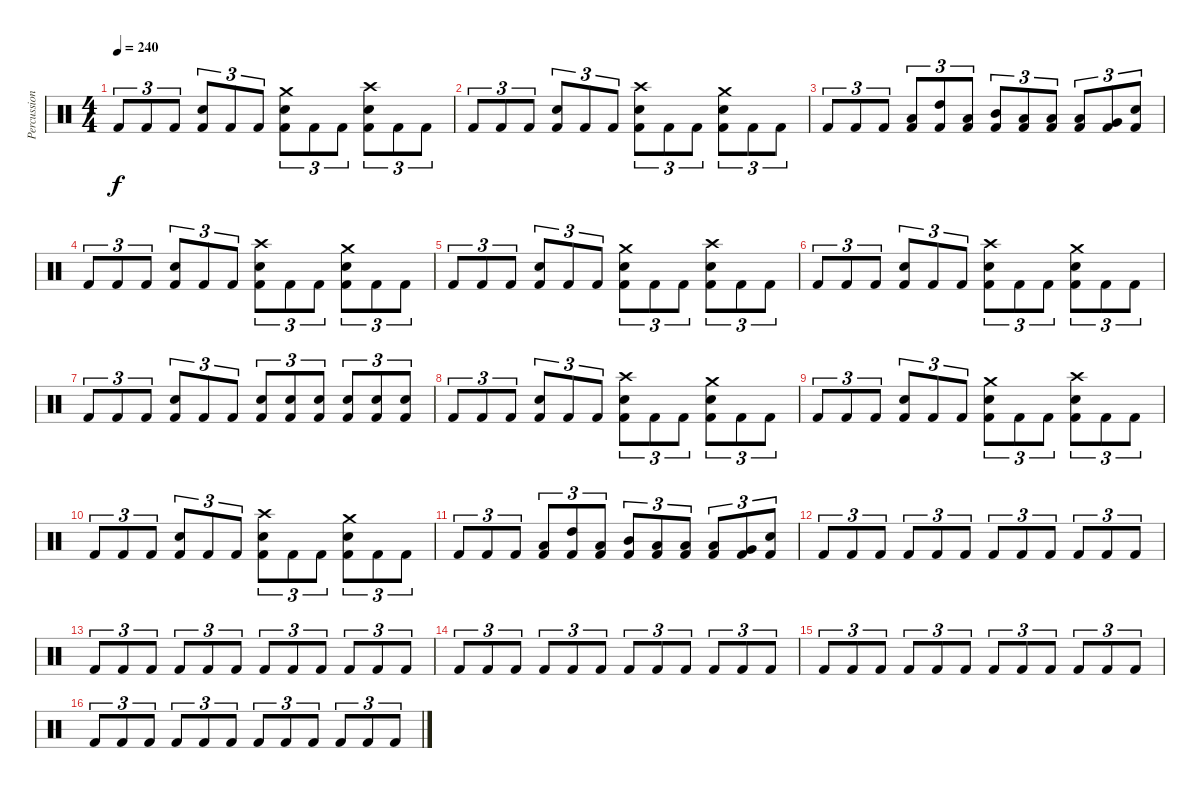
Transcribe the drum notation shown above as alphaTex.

\track ("Percussion" "Percussion") {instrument percussion}
\staff {score}
\articulation defaults
\ts (4 4)
\tempo 240
\clef neutral
\ks c "Kick (hit) 2".8{tu (3 2) dy f} "Kick (hit) 2".8{tu (3 2)} "Kick (hit) 2".8{tu (3 2)}
("Kick (hit) 2" "Electric Snare (hit)").8{tu (3 2)} "Kick (hit) 2".8{tu (3 2)} "Kick (hit) 2".8{tu (3 2)} ("Kick (hit) 2" "Electric Snare (hit)" "Crash medium (hit)").8{tu (3 2)} "Kick (hit) 2".8{tu (3 2)} "Kick (hit) 2".8{tu (3 2)} ("Kick (hit) 2" "Electric Snare (hit)" "Crash high (hit)").8{tu (3 2)} "Kick (hit) 2".8{tu (3 2)} "Kick (hit) 2".8{tu (3 2)} |
"Kick (hit) 2".8{tu (3 2)} "Kick (hit) 2".8{tu (3 2)} "Kick (hit) 2".8{tu (3 2)} ("Kick (hit) 2" "Electric Snare (hit)").8{tu (3 2)} "Kick (hit) 2".8{tu (3 2)} "Kick (hit) 2".8{tu (3 2)} ("Kick (hit) 2" "Electric Snare (hit)" "Crash high (hit)").8{tu (3 2)} "Kick (hit) 2".8{tu (3 2)} "Kick (hit) 2".8{tu (3 2)} ("Kick (hit) 2" "Electric Snare (hit)" "Crash medium (hit)").8{tu (3 2)} "Kick (hit) 2".8{tu (3 2)} "Kick (hit) 2".8{tu (3 2)} |
"Kick (hit) 2".8{tu (3 2)} "Kick (hit) 2".8{tu (3 2)} "Kick (hit) 2".8{tu (3 2)} ("Kick (hit) 2" "Low Floor Tom (hit)").8{tu (3 2)} ("Kick (hit) 2" "High Tom (hit)").8{tu (3 2)} ("Kick (hit) 2" "Low Floor Tom (hit)").8{tu (3 2)} ("Kick (hit) 2" "Mid Tom (hit)").8{tu (3 2)} ("Kick (hit) 2" "Low Floor Tom (hit)").8{tu (3 2)} ("Kick (hit) 2" "Low Tom (hit)").8{tu (3 2)} ("Kick (hit) 2" "Low Floor Tom (hit)").8{tu (3 2)} ("Kick (hit) 2" "Very Low Tom (hit)").8{tu (3 2)} ("Kick (hit) 2" "Electric Snare (hit)").8{tu (3 2)} |
"Kick (hit) 2".8{tu (3 2)} "Kick (hit) 2".8{tu (3 2)} "Kick (hit) 2".8{tu (3 2)} ("Kick (hit) 2" "Electric Snare (hit)").8{tu (3 2)} "Kick (hit) 2".8{tu (3 2)} "Kick (hit) 2".8{tu (3 2)} ("Kick (hit) 2" "Electric Snare (hit)" "Crash high (hit)").8{tu (3 2)} "Kick (hit) 2".8{tu (3 2)} "Kick (hit) 2".8{tu (3 2)} ("Kick (hit) 2" "Electric Snare (hit)" "Crash medium (hit)").8{tu (3 2)} "Kick (hit) 2".8{tu (3 2)} "Kick (hit) 2".8{tu (3 2)} |
"Kick (hit) 2".8{tu (3 2)} "Kick (hit) 2".8{tu (3 2)} "Kick (hit) 2".8{tu (3 2)} ("Kick (hit) 2" "Electric Snare (hit)").8{tu (3 2)} "Kick (hit) 2".8{tu (3 2)} "Kick (hit) 2".8{tu (3 2)} ("Kick (hit) 2" "Electric Snare (hit)" "Crash medium (hit)").8{tu (3 2)} "Kick (hit) 2".8{tu (3 2)} "Kick (hit) 2".8{tu (3 2)} ("Kick (hit) 2" "Electric Snare (hit)" "Crash high (hit)").8{tu (3 2)} "Kick (hit) 2".8{tu (3 2)} "Kick (hit) 2".8{tu (3 2)} |
"Kick (hit) 2".8{tu (3 2)} "Kick (hit) 2".8{tu (3 2)} "Kick (hit) 2".8{tu (3 2)} ("Kick (hit) 2" "Electric Snare (hit)").8{tu (3 2)} "Kick (hit) 2".8{tu (3 2)} "Kick (hit) 2".8{tu (3 2)} ("Kick (hit) 2" "Electric Snare (hit)" "Crash high (hit)").8{tu (3 2)} "Kick (hit) 2".8{tu (3 2)} "Kick (hit) 2".8{tu (3 2)} ("Kick (hit) 2" "Electric Snare (hit)" "Crash medium (hit)").8{tu (3 2)} "Kick (hit) 2".8{tu (3 2)} "Kick (hit) 2".8{tu (3 2)} |
"Kick (hit) 2".8{tu (3 2)} "Kick (hit) 2".8{tu (3 2)} "Kick (hit) 2".8{tu (3 2)} ("Kick (hit) 2" "Electric Snare (hit)").8{tu (3 2)} "Kick (hit) 2".8{tu (3 2)} "Kick (hit) 2".8{tu (3 2)} ("Kick (hit) 2" "Electric Snare (hit)").8{tu (3 2)} ("Kick (hit) 2" "Electric Snare (hit)").8{tu (3 2)} ("Kick (hit) 2" "Electric Snare (hit)").8{tu (3 2)} ("Kick (hit) 2" "Electric Snare (hit)").8{tu (3 2)} ("Kick (hit) 2" "Electric Snare (hit)").8{tu (3 2)} ("Kick (hit) 2" "Electric Snare (hit)").8{tu (3 2)} |
"Kick (hit) 2".8{tu (3 2)} "Kick (hit) 2".8{tu (3 2)} "Kick (hit) 2".8{tu (3 2)} ("Kick (hit) 2" "Electric Snare (hit)").8{tu (3 2)} "Kick (hit) 2".8{tu (3 2)} "Kick (hit) 2".8{tu (3 2)} ("Kick (hit) 2" "Electric Snare (hit)" "Crash high (hit)").8{tu (3 2)} "Kick (hit) 2".8{tu (3 2)} "Kick (hit) 2".8{tu (3 2)} ("Kick (hit) 2" "Electric Snare (hit)" "Crash medium (hit)").8{tu (3 2)} "Kick (hit) 2".8{tu (3 2)} "Kick (hit) 2".8{tu (3 2)} |
"Kick (hit) 2".8{tu (3 2)} "Kick (hit) 2".8{tu (3 2)} "Kick (hit) 2".8{tu (3 2)} ("Kick (hit) 2" "Electric Snare (hit)").8{tu (3 2)} "Kick (hit) 2".8{tu (3 2)} "Kick (hit) 2".8{tu (3 2)} ("Kick (hit) 2" "Electric Snare (hit)" "Crash medium (hit)").8{tu (3 2)} "Kick (hit) 2".8{tu (3 2)} "Kick (hit) 2".8{tu (3 2)} ("Kick (hit) 2" "Electric Snare (hit)" "Crash high (hit)").8{tu (3 2)} "Kick (hit) 2".8{tu (3 2)} "Kick (hit) 2".8{tu (3 2)} |
"Kick (hit) 2".8{tu (3 2)} "Kick (hit) 2".8{tu (3 2)} "Kick (hit) 2".8{tu (3 2)} ("Kick (hit) 2" "Electric Snare (hit)").8{tu (3 2)} "Kick (hit) 2".8{tu (3 2)} "Kick (hit) 2".8{tu (3 2)} ("Kick (hit) 2" "Electric Snare (hit)" "Crash high (hit)").8{tu (3 2)} "Kick (hit) 2".8{tu (3 2)} "Kick (hit) 2".8{tu (3 2)} ("Kick (hit) 2" "Electric Snare (hit)" "Crash medium (hit)").8{tu (3 2)} "Kick (hit) 2".8{tu (3 2)} "Kick (hit) 2".8{tu (3 2)} |
"Kick (hit) 2".8{tu (3 2)} "Kick (hit) 2".8{tu (3 2)} "Kick (hit) 2".8{tu (3 2)} ("Kick (hit) 2" "Low Floor Tom (hit)").8{tu (3 2)} ("Kick (hit) 2" "High Tom (hit)").8{tu (3 2)} ("Kick (hit) 2" "Low Floor Tom (hit)").8{tu (3 2)} ("Kick (hit) 2" "Mid Tom (hit)").8{tu (3 2)} ("Kick (hit) 2" "Low Floor Tom (hit)").8{tu (3 2)} ("Kick (hit) 2" "Low Tom (hit)").8{tu (3 2)} ("Kick (hit) 2" "Low Floor Tom (hit)").8{tu (3 2)} ("Kick (hit) 2" "Very Low Tom (hit)").8{tu (3 2)} ("Kick (hit) 2" "Electric Snare (hit)").8{tu (3 2)} |
"Kick (hit) 2".8{tu (3 2)} "Kick (hit) 2".8{tu (3 2)} "Kick (hit) 2".8{tu (3 2)} "Kick (hit) 2".8{tu (3 2)} "Kick (hit) 2".8{tu (3 2)} "Kick (hit) 2".8{tu (3 2)} "Kick (hit) 2".8{tu (3 2)} "Kick (hit) 2".8{tu (3 2)} "Kick (hit) 2".8{tu (3 2)} "Kick (hit) 2".8{tu (3 2)} "Kick (hit) 2".8{tu (3 2)} "Kick (hit) 2".8{tu (3 2)} |
"Kick (hit) 2".8{tu (3 2)} "Kick (hit) 2".8{tu (3 2)} "Kick (hit) 2".8{tu (3 2)} "Kick (hit) 2".8{tu (3 2)} "Kick (hit) 2".8{tu (3 2)} "Kick (hit) 2".8{tu (3 2)} "Kick (hit) 2".8{tu (3 2)} "Kick (hit) 2".8{tu (3 2)} "Kick (hit) 2".8{tu (3 2)} "Kick (hit) 2".8{tu (3 2)} "Kick (hit) 2".8{tu (3 2)} "Kick (hit) 2".8{tu (3 2)} |
"Kick (hit) 2".8{tu (3 2)} "Kick (hit) 2".8{tu (3 2)} "Kick (hit) 2".8{tu (3 2)} "Kick (hit) 2".8{tu (3 2)} "Kick (hit) 2".8{tu (3 2)} "Kick (hit) 2".8{tu (3 2)} "Kick (hit) 2".8{tu (3 2)} "Kick (hit) 2".8{tu (3 2)} "Kick (hit) 2".8{tu (3 2)} "Kick (hit) 2".8{tu (3 2)} "Kick (hit) 2".8{tu (3 2)} "Kick (hit) 2".8{tu (3 2)} |
"Kick (hit) 2".8{tu (3 2)} "Kick (hit) 2".8{tu (3 2)} "Kick (hit) 2".8{tu (3 2)} "Kick (hit) 2".8{tu (3 2)} "Kick (hit) 2".8{tu (3 2)} "Kick (hit) 2".8{tu (3 2)} "Kick (hit) 2".8{tu (3 2)} "Kick (hit) 2".8{tu (3 2)} "Kick (hit) 2".8{tu (3 2)} "Kick (hit) 2".8{tu (3 2)} "Kick (hit) 2".8{tu (3 2)} "Kick (hit) 2".8{tu (3 2)} |
"Kick (hit) 2".8{tu (3 2)} "Kick (hit) 2".8{tu (3 2)} "Kick (hit) 2".8{tu (3 2)} "Kick (hit) 2".8{tu (3 2)} "Kick (hit) 2".8{tu (3 2)} "Kick (hit) 2".8{tu (3 2)} "Kick (hit) 2".8{tu (3 2)} "Kick (hit) 2".8{tu (3 2)} "Kick (hit) 2".8{tu (3 2)} "Kick (hit) 2".8{tu (3 2)} "Kick (hit) 2".8{tu (3 2)} "Kick (hit) 2".8{tu (3 2)}
